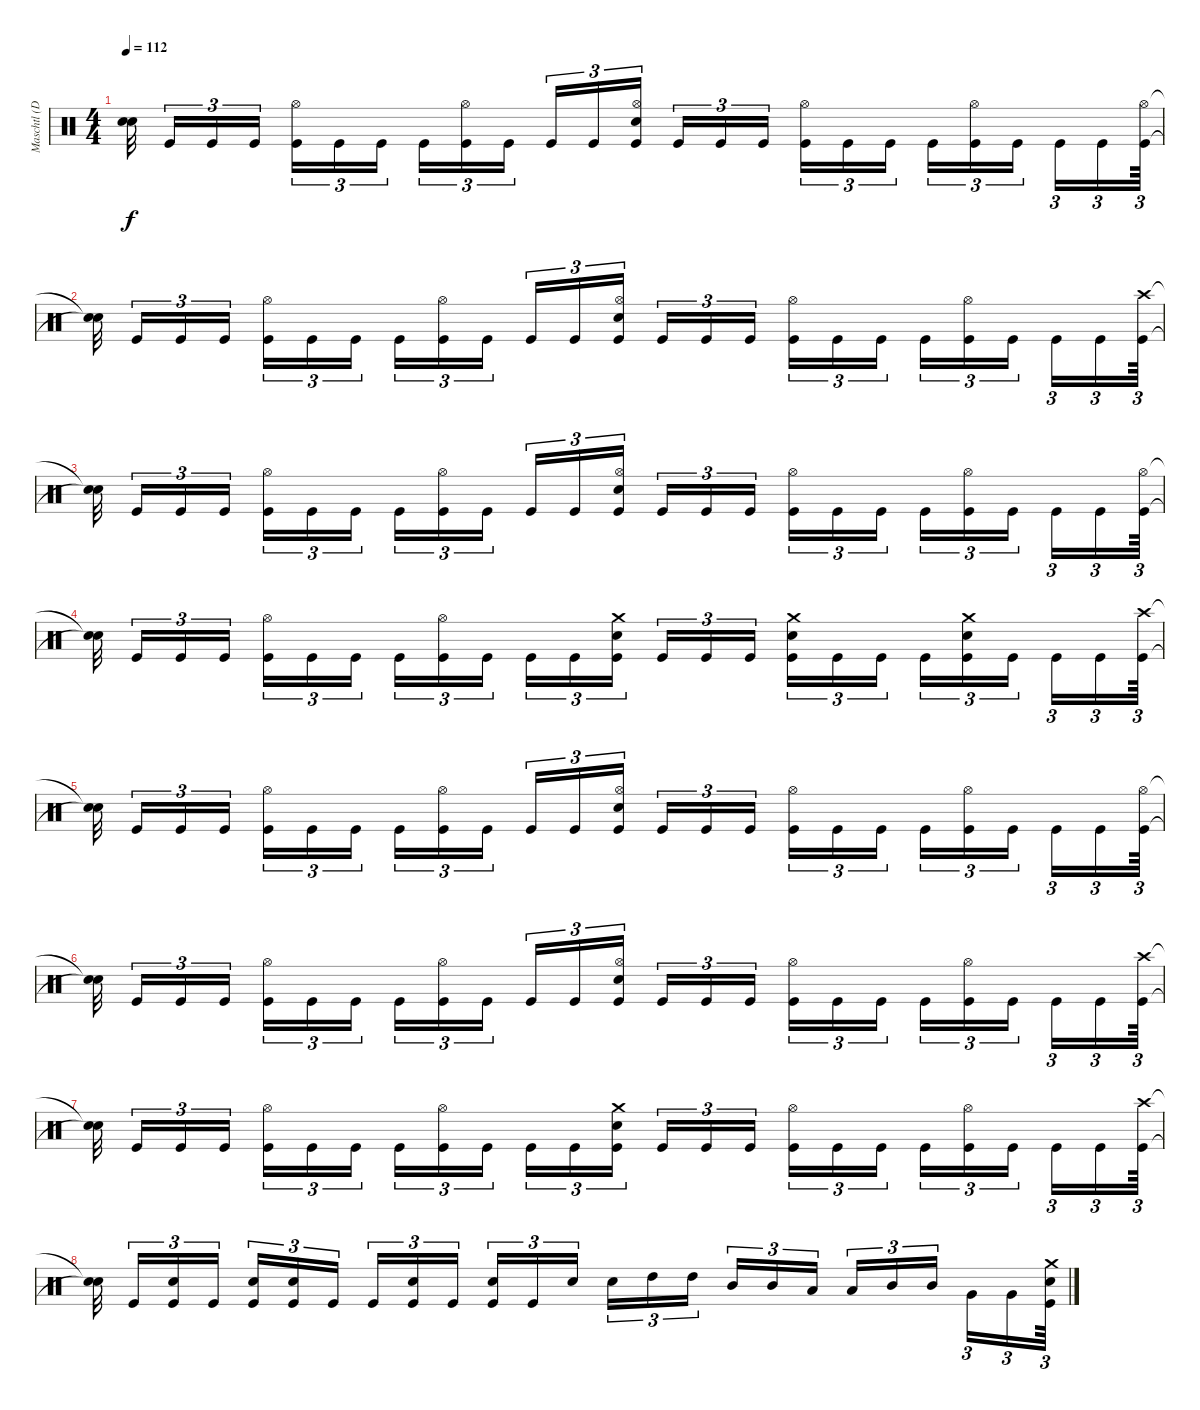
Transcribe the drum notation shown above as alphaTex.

\track ("Maschtl (Drums)" "Maschtl (D") {instrument percussion}
\staff {score}
\articulation defaults
\ts (4 4)
\tempo 112
\clef neutral
\ks c
("Snare (hit)"{t} "Snare (hit)"{t}).32{dy f} "Kick (hit)".16{tu (3 2)} "Kick (hit)".16{tu (3 2)} "Kick (hit)".16{tu (3 2)} ("Hi-Hat (open)" "Kick (hit)").16{tu (3 2)} "Kick (hit)".16{tu (3 2)} "Kick (hit)".16{tu (3 2)} "Kick (hit)".16{tu (3 2)} ("Hi-Hat (open)" "Kick (hit)").16{tu (3 2)} "Kick (hit)".16{tu (3 2)} "Kick (hit)".16{tu (3 2)} "Kick (hit)".16{tu (3 2)} ("Hi-Hat (open)" "Electric Snare (hit)" "Kick (hit)").16{tu (3 2)} "Kick (hit)".16{tu (3 2)} "Kick (hit)".16{tu (3 2)} "Kick (hit)".16{tu (3 2)} ("Hi-Hat (open)" "Kick (hit)").16{tu (3 2)} "Kick (hit)".16{tu (3 2)} "Kick (hit)".16{tu (3 2)} "Kick (hit)".16{tu (3 2)} ("Hi-Hat (open)" "Kick (hit)").16{tu (3 2)} "Kick (hit)".16{tu (3 2)} "Kick (hit)".16{tu (3 2)} "Kick (hit)".16{tu (3 2)} ("Hi-Hat (open)" "Kick (hit)").64{tu (3 2)} |
("Snare (hit)"{t} "Snare (hit)"{t}).32 "Kick (hit)".16{tu (3 2)} "Kick (hit)".16{tu (3 2)} "Kick (hit)".16{tu (3 2)} ("Hi-Hat (open)" "Kick (hit)").16{tu (3 2)} "Kick (hit)".16{tu (3 2)} "Kick (hit)".16{tu (3 2)} "Kick (hit)".16{tu (3 2)} ("Hi-Hat (open)" "Kick (hit)").16{tu (3 2)} "Kick (hit)".16{tu (3 2)} "Kick (hit)".16{tu (3 2)} "Kick (hit)".16{tu (3 2)} ("Hi-Hat (open)" "Electric Snare (hit)" "Kick (hit)").16{tu (3 2)} "Kick (hit)".16{tu (3 2)} "Kick (hit)".16{tu (3 2)} "Kick (hit)".16{tu (3 2)} ("Hi-Hat (open)" "Kick (hit)").16{tu (3 2)} "Kick (hit)".16{tu (3 2)} "Kick (hit)".16{tu (3 2)} "Kick (hit)".16{tu (3 2)} ("Hi-Hat (open)" "Kick (hit)").16{tu (3 2)} "Kick (hit)".16{tu (3 2)} "Kick (hit)".16{tu (3 2)} "Kick (hit)".16{tu (3 2)} ("Crash high (hit)" "Kick (hit)").64{tu (3 2)} |
("Snare (hit)"{t} "Snare (hit)"{t}).32 "Kick (hit)".16{tu (3 2)} "Kick (hit)".16{tu (3 2)} "Kick (hit)".16{tu (3 2)} ("Hi-Hat (open)" "Kick (hit)").16{tu (3 2)} "Kick (hit)".16{tu (3 2)} "Kick (hit)".16{tu (3 2)} "Kick (hit)".16{tu (3 2)} ("Hi-Hat (open)" "Kick (hit)").16{tu (3 2)} "Kick (hit)".16{tu (3 2)} "Kick (hit)".16{tu (3 2)} "Kick (hit)".16{tu (3 2)} ("Hi-Hat (open)" "Electric Snare (hit)" "Kick (hit)").16{tu (3 2)} "Kick (hit)".16{tu (3 2)} "Kick (hit)".16{tu (3 2)} "Kick (hit)".16{tu (3 2)} ("Hi-Hat (open)" "Kick (hit)").16{tu (3 2)} "Kick (hit)".16{tu (3 2)} "Kick (hit)".16{tu (3 2)} "Kick (hit)".16{tu (3 2)} ("Hi-Hat (open)" "Kick (hit)").16{tu (3 2)} "Kick (hit)".16{tu (3 2)} "Kick (hit)".16{tu (3 2)} "Kick (hit)".16{tu (3 2)} ("Hi-Hat (open)" "Kick (hit)").64{tu (3 2)} |
("Snare (hit)"{t} "Snare (hit)"{t}).32 "Kick (hit)".16{tu (3 2)} "Kick (hit)".16{tu (3 2)} "Kick (hit)".16{tu (3 2)} ("Hi-Hat (open)" "Kick (hit)").16{tu (3 2)} "Kick (hit)".16{tu (3 2)} "Kick (hit)".16{tu (3 2)} "Kick (hit)".16{tu (3 2)} ("Hi-Hat (open)" "Kick (hit)").16{tu (3 2)} "Kick (hit)".16{tu (3 2)} "Kick (hit)".16{tu (3 2)} "Kick (hit)".16{tu (3 2)} ("Crash medium (hit)" "Electric Snare (hit)" "Kick (hit)").16{tu (3 2)} "Kick (hit)".16{tu (3 2)} "Kick (hit)".16{tu (3 2)} "Kick (hit)".16{tu (3 2)} ("Crash medium (hit)" "Electric Snare (hit)" "Kick (hit)").16{tu (3 2)} "Kick (hit)".16{tu (3 2)} "Kick (hit)".16{tu (3 2)} "Kick (hit)".16{tu (3 2)} ("Crash medium (hit)" "Electric Snare (hit)" "Kick (hit)").16{tu (3 2)} "Kick (hit)".16{tu (3 2)} "Kick (hit)".16{tu (3 2)} "Kick (hit)".16{tu (3 2)} ("Crash high (hit)" "Kick (hit)").64{tu (3 2)} |
("Snare (hit)"{t} "Snare (hit)"{t}).32 "Kick (hit)".16{tu (3 2)} "Kick (hit)".16{tu (3 2)} "Kick (hit)".16{tu (3 2)} ("Hi-Hat (open)" "Kick (hit)").16{tu (3 2)} "Kick (hit)".16{tu (3 2)} "Kick (hit)".16{tu (3 2)} "Kick (hit)".16{tu (3 2)} ("Hi-Hat (open)" "Kick (hit)").16{tu (3 2)} "Kick (hit)".16{tu (3 2)} "Kick (hit)".16{tu (3 2)} "Kick (hit)".16{tu (3 2)} ("Hi-Hat (open)" "Electric Snare (hit)" "Kick (hit)").16{tu (3 2)} "Kick (hit)".16{tu (3 2)} "Kick (hit)".16{tu (3 2)} "Kick (hit)".16{tu (3 2)} ("Hi-Hat (open)" "Kick (hit)").16{tu (3 2)} "Kick (hit)".16{tu (3 2)} "Kick (hit)".16{tu (3 2)} "Kick (hit)".16{tu (3 2)} ("Hi-Hat (open)" "Kick (hit)").16{tu (3 2)} "Kick (hit)".16{tu (3 2)} "Kick (hit)".16{tu (3 2)} "Kick (hit)".16{tu (3 2)} ("Hi-Hat (open)" "Kick (hit)").64{tu (3 2)} |
("Snare (hit)"{t} "Snare (hit)"{t}).32 "Kick (hit)".16{tu (3 2)} "Kick (hit)".16{tu (3 2)} "Kick (hit)".16{tu (3 2)} ("Hi-Hat (open)" "Kick (hit)").16{tu (3 2)} "Kick (hit)".16{tu (3 2)} "Kick (hit)".16{tu (3 2)} "Kick (hit)".16{tu (3 2)} ("Hi-Hat (open)" "Kick (hit)").16{tu (3 2)} "Kick (hit)".16{tu (3 2)} "Kick (hit)".16{tu (3 2)} "Kick (hit)".16{tu (3 2)} ("Hi-Hat (open)" "Electric Snare (hit)" "Kick (hit)").16{tu (3 2)} "Kick (hit)".16{tu (3 2)} "Kick (hit)".16{tu (3 2)} "Kick (hit)".16{tu (3 2)} ("Hi-Hat (open)" "Kick (hit)").16{tu (3 2)} "Kick (hit)".16{tu (3 2)} "Kick (hit)".16{tu (3 2)} "Kick (hit)".16{tu (3 2)} ("Hi-Hat (open)" "Kick (hit)").16{tu (3 2)} "Kick (hit)".16{tu (3 2)} "Kick (hit)".16{tu (3 2)} "Kick (hit)".16{tu (3 2)} ("Crash high (hit)" "Kick (hit)").64{tu (3 2)} |
("Snare (hit)"{t} "Snare (hit)"{t}).32 "Kick (hit)".16{tu (3 2)} "Kick (hit)".16{tu (3 2)} "Kick (hit)".16{tu (3 2)} ("Hi-Hat (open)" "Kick (hit)").16{tu (3 2)} "Kick (hit)".16{tu (3 2)} "Kick (hit)".16{tu (3 2)} "Kick (hit)".16{tu (3 2)} ("Hi-Hat (open)" "Kick (hit)").16{tu (3 2)} "Kick (hit)".16{tu (3 2)} "Kick (hit)".16{tu (3 2)} "Kick (hit)".16{tu (3 2)} ("Crash medium (hit)" "Electric Snare (hit)" "Kick (hit)").16{tu (3 2)} "Kick (hit)".16{tu (3 2)} "Kick (hit)".16{tu (3 2)} "Kick (hit)".16{tu (3 2)} ("Hi-Hat (open)" "Kick (hit)").16{tu (3 2)} "Kick (hit)".16{tu (3 2)} "Kick (hit)".16{tu (3 2)} "Kick (hit)".16{tu (3 2)} ("Hi-Hat (open)" "Kick (hit)").16{tu (3 2)} "Kick (hit)".16{tu (3 2)} "Kick (hit)".16{tu (3 2)} "Kick (hit)".16{tu (3 2)} ("Crash high (hit)" "Kick (hit)").64{tu (3 2)} |
("Snare (hit)"{t} "Snare (hit)"{t}).32 "Kick (hit)".16{tu (3 2)} ("Electric Snare (hit)" "Kick (hit)").16{tu (3 2)} "Kick (hit)".16{tu (3 2)} ("Electric Snare (hit)" "Kick (hit)").16{tu (3 2)} ("Electric Snare (hit)" "Kick (hit)").16{tu (3 2)} "Kick (hit)".16{tu (3 2)} "Kick (hit)".16{tu (3 2)} ("Electric Snare (hit)" "Kick (hit)").16{tu (3 2)} "Kick (hit)".16{tu (3 2)} ("Electric Snare (hit)" "Kick (hit)").16{tu (3 2)} "Kick (hit)".16{tu (3 2)} "Electric Snare (hit)".16{tu (3 2)} "Electric Snare (hit)".16{tu (3 2)} "High Tom (hit)".16{tu (3 2)} "High Tom (hit)".16{tu (3 2)} "Mid Tom (hit)".16{tu (3 2)} "Mid Tom (hit)".16{tu (3 2)} "Low Tom (hit)".16{tu (3 2)} "Low Tom (hit)".16{tu (3 2)} "Mid Tom (hit)".16{tu (3 2)} "Mid Tom (hit)".16{tu (3 2)} "Very Low Tom (hit)".16{tu (3 2)} "Very Low Tom (hit)".16{tu (3 2)} ("Crash medium (hit)" "Electric Snare (hit)" "Kick (hit)").64{tu (3 2)}
